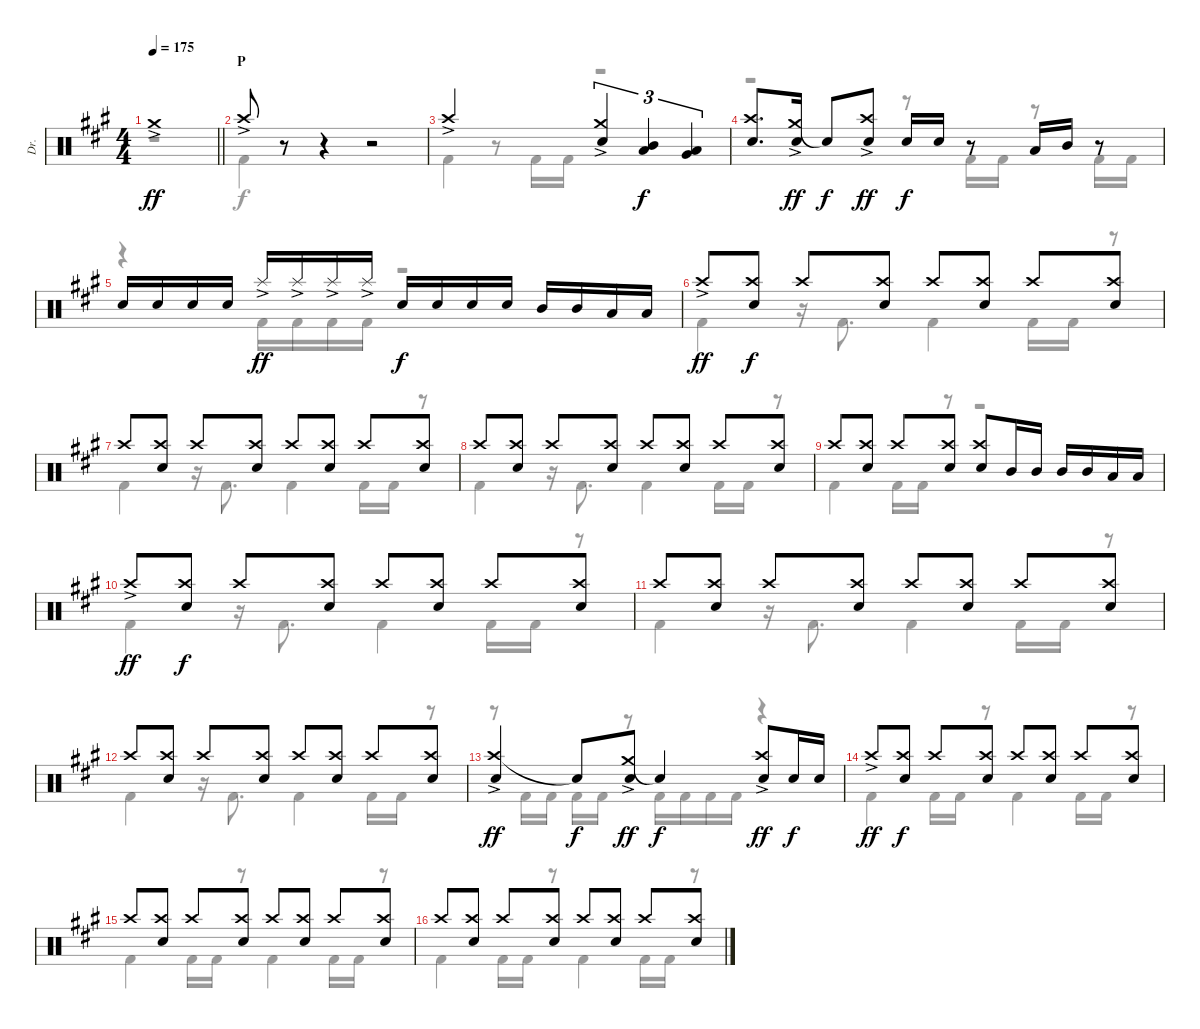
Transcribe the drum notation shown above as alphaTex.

\track ("Dr." "Dr.") {instrument percussion}
\staff {score}
\articulation defaults
\voice
\ts (4 4)
\tempo 175
\clef neutral
\barLineRight lightlight
\ks f#minor "Crash medium (hit)"{ac}.1{dy ff}
|
\section ("" "P")
"Crash high (hit)"{ac}.8 r.8 r.4 r.2 |
"Crash high (hit)"{ac}.2 ("Crash medium (hit)"{ac} "Electric Snare (hit)").4{tu (3 2)} ("Mid Tom (hit)" "Low Tom (hit)").4{tu (3 2) dy f} ("Low Tom (hit)" "Very Low Tom (hit)").4{tu (3 2)} |
("Crash high (hit)" "Electric Snare (hit)").8{d} ("Crash medium (hit)"{ac} "Electric Snare (hit)").16{dy ff} "Snare (hit)"{t}.8{dy f} ("Crash high (hit)"{ac} "Electric Snare (hit)").8{dy ff} "Electric Snare (hit)".16{dy f} "Electric Snare (hit)".16 r.8 "Low Tom (hit)".16 "Mid Tom (hit)".16 r.8 |
"Electric Snare (hit)".16 "Electric Snare (hit)".16 "Electric Snare (hit)".16 "Electric Snare (hit)".16 "Splash (hit)"{ac}.16{dy ff} "Splash (hit)"{ac}.16 "Splash (hit)"{ac}.16 "Splash (hit)"{ac}.16 "Electric Snare (hit)".16{dy f} "Electric Snare (hit)".16 "Electric Snare (hit)".16 "Electric Snare (hit)".16 "Mid Tom (hit)".16 "Mid Tom (hit)".16 "Low Tom (hit)".16 "Low Tom (hit)".16 |
"Crash high (hit)"{ac}.8{dy ff} ("Crash high (hit)" "Electric Snare (hit)").8{dy f} "Crash high (hit)".8 ("Crash high (hit)" "Electric Snare (hit)").8 "Crash high (hit)".8 ("Crash high (hit)" "Electric Snare (hit)").8 "Crash high (hit)".8 ("Crash high (hit)" "Electric Snare (hit)").8 |
"Crash high (hit)".8 ("Crash high (hit)" "Electric Snare (hit)").8 "Crash high (hit)".8 ("Crash high (hit)" "Electric Snare (hit)").8 "Crash high (hit)".8 ("Crash high (hit)" "Electric Snare (hit)").8 "Crash high (hit)".8 ("Crash high (hit)" "Electric Snare (hit)").8 |
"Crash high (hit)".8 ("Crash high (hit)" "Electric Snare (hit)").8 "Crash high (hit)".8 ("Crash high (hit)" "Electric Snare (hit)").8 "Crash high (hit)".8 ("Crash high (hit)" "Electric Snare (hit)").8 "Crash high (hit)".8 ("Crash high (hit)" "Electric Snare (hit)").8 |
"Crash high (hit)".8 ("Crash high (hit)" "Electric Snare (hit)").8 "Crash high (hit)".8 ("Crash high (hit)" "Electric Snare (hit)").8 ("Crash high (hit)" "Electric Snare (hit)").8 "Mid Tom (hit)".16 "Mid Tom (hit)".16 "Mid Tom (hit)".16 "Mid Tom (hit)".16 "Low Tom (hit)".16 "Low Tom (hit)".16 |
"Crash high (hit)"{ac}.8{dy ff} ("Crash high (hit)" "Electric Snare (hit)").8{dy f} "Crash high (hit)".8 ("Crash high (hit)" "Electric Snare (hit)").8 "Crash high (hit)".8 ("Crash high (hit)" "Electric Snare (hit)").8 "Crash high (hit)".8 ("Crash high (hit)" "Electric Snare (hit)").8 |
"Crash high (hit)".8 ("Crash high (hit)" "Electric Snare (hit)").8 "Crash high (hit)".8 ("Crash high (hit)" "Electric Snare (hit)").8 "Crash high (hit)".8 ("Crash high (hit)" "Electric Snare (hit)").8 "Crash high (hit)".8 ("Crash high (hit)" "Electric Snare (hit)").8 |
"Crash high (hit)".8 ("Crash high (hit)" "Electric Snare (hit)").8 "Crash high (hit)".8 ("Crash high (hit)" "Electric Snare (hit)").8 "Crash high (hit)".8 ("Crash high (hit)" "Electric Snare (hit)").8 "Crash high (hit)".8 ("Crash high (hit)" "Electric Snare (hit)").8 |
("Crash high (hit)"{ac} "Electric Snare (hit)").4{dy ff} "Snare (hit)"{t}.8{dy f} ("Crash medium (hit)"{ac} "Electric Snare (hit)").8{dy ff} "Snare (hit)"{t}.4{dy f} ("Crash high (hit)"{ac} "Electric Snare (hit)").8{dy ff} "Electric Snare (hit)".16{dy f} "Electric Snare (hit)".16 |
"Crash high (hit)"{ac}.8{dy ff} ("Crash high (hit)" "Electric Snare (hit)").8{dy f} "Crash high (hit)".8 ("Crash high (hit)" "Electric Snare (hit)").8 "Crash high (hit)".8 ("Crash high (hit)" "Electric Snare (hit)").8 "Crash high (hit)".8 ("Crash high (hit)" "Electric Snare (hit)").8 |
"Crash high (hit)".8 ("Crash high (hit)" "Electric Snare (hit)").8 "Crash high (hit)".8 ("Crash high (hit)" "Electric Snare (hit)").8 "Crash high (hit)".8 ("Crash high (hit)" "Electric Snare (hit)").8 "Crash high (hit)".8 ("Crash high (hit)" "Electric Snare (hit)").8 |
"Crash high (hit)".8 ("Crash high (hit)" "Electric Snare (hit)").8 "Crash high (hit)".8 ("Crash high (hit)" "Electric Snare (hit)").8 "Crash high (hit)".8 ("Crash high (hit)" "Electric Snare (hit)").8 "Crash high (hit)".8 ("Crash high (hit)" "Electric Snare (hit)").8
\voice
\clef neutral
\ottava regular
\simile none
\barLineRight lightlight
\ks f#minor
r.1{dy f} |
"Kick (hit) 2".4 r.4 r.2 |
"Kick (hit) 2".4 r.8 "Kick (hit) 2".16 "Kick (hit) 2".16 r.2 |
r.2 r.8 "Kick (hit) 2".16 "Kick (hit) 2".16 r.8 "Kick (hit) 2".16 "Kick (hit) 2".16 |
r.4 "Kick (hit) 2".16 "Kick (hit) 2".16 "Kick (hit) 2".16 "Kick (hit) 2".16 r.2 |
"Kick (hit) 2".4 r.16 "Kick (hit) 2".8{d} "Kick (hit) 2".4 "Kick (hit) 2".16 "Kick (hit) 2".16 r.8 |
"Kick (hit) 2".4 r.16 "Kick (hit) 2".8{d} "Kick (hit) 2".4 "Kick (hit) 2".16 "Kick (hit) 2".16 r.8 |
"Kick (hit) 2".4 r.16 "Kick (hit) 2".8{d} "Kick (hit) 2".4 "Kick (hit) 2".16 "Kick (hit) 2".16 r.8 |
"Kick (hit) 2".4 "Kick (hit) 2".16 "Kick (hit) 2".16 r.8 r.2 |
"Kick (hit) 2".4 r.16 "Kick (hit) 2".8{d} "Kick (hit) 2".4 "Kick (hit) 2".16 "Kick (hit) 2".16 r.8 |
"Kick (hit) 2".4 r.16 "Kick (hit) 2".8{d} "Kick (hit) 2".4 "Kick (hit) 2".16 "Kick (hit) 2".16 r.8 |
"Kick (hit) 2".4 r.16 "Kick (hit) 2".8{d} "Kick (hit) 2".4 "Kick (hit) 2".16 "Kick (hit) 2".16 r.8 |
r.8 "Kick (hit) 2".16 "Kick (hit) 2".16 "Kick (hit) 2".16 "Kick (hit) 2".16 r.8 "Kick (hit) 2".16 "Kick (hit) 2".16 "Kick (hit) 2".16 "Kick (hit) 2".16 r.4 |
"Kick (hit) 2".4 "Kick (hit) 2".16 "Kick (hit) 2".16 r.8 "Kick (hit) 2".4 "Kick (hit) 2".16 "Kick (hit) 2".16 r.8 |
"Kick (hit) 2".4 "Kick (hit) 2".16 "Kick (hit) 2".16 r.8 "Kick (hit) 2".4 "Kick (hit) 2".16 "Kick (hit) 2".16 r.8 |
"Kick (hit) 2".4 "Kick (hit) 2".16 "Kick (hit) 2".16 r.8 "Kick (hit) 2".4 "Kick (hit) 2".16 "Kick (hit) 2".16 r.8
